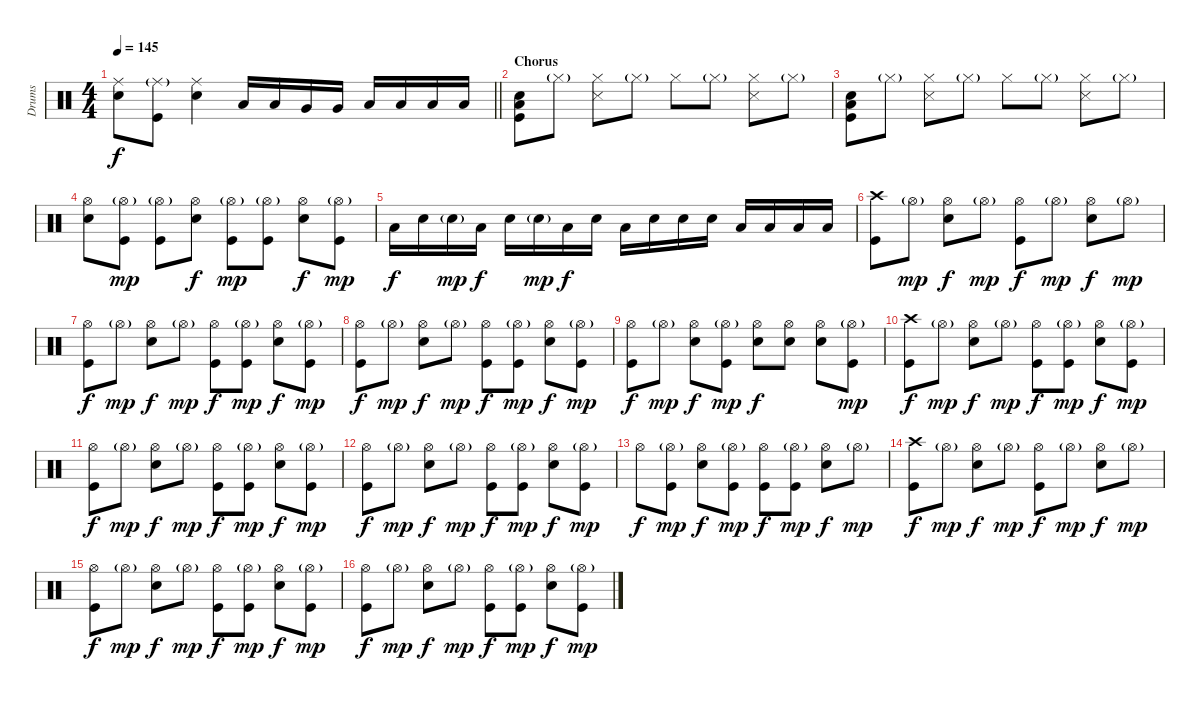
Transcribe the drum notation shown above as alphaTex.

\track ("Drums" "Drums") {instrument percussion}
\staff {score}
\articulation defaults
\ts (4 4)
\tempo 145
\clef neutral
\barLineRight lightlight
\ks c
("Ride (middle)" "Snare (hit) 2").8{dy f} ("Ride (middle)"{g} "Kick (hit)").8 ("Ride (middle)" "Snare (hit) 2").4 "Low Tom (hit)".16 "Low Tom (hit)".16 "Very Low Tom (hit)".16 "Very Low Tom (hit)".16 "Low Floor Tom (hit)".16 "Low Floor Tom (hit)".16 "Low Floor Tom (hit)".16 "Low Floor Tom (hit)".16 |
\section ("" "Chorus")
("Snare (hit) 2" "Low Floor Tom (hit)" "Kick (hit)").8 "Hi-Hat (closed)"{g}.8 ("Hi-Hat (closed)" "Snare (side stick) 3").8 "Hi-Hat (closed)"{g}.8 "Hi-Hat (closed)".8 "Hi-Hat (closed)"{g}.8 ("Hi-Hat (closed)" "Snare (side stick) 3").8 "Hi-Hat (closed)"{g}.8 |
("Snare (hit) 2" "Low Floor Tom (hit)" "Kick (hit)").8 "Hi-Hat (closed)"{g}.8 ("Hi-Hat (closed)" "Snare (side stick) 3").8 "Hi-Hat (closed)"{g}.8 "Hi-Hat (closed)".8 "Hi-Hat (closed)"{g}.8 ("Hi-Hat (closed)" "Snare (side stick) 3").8 "Hi-Hat (closed)"{g}.8 |
("Hi-Hat (open)" "Snare (hit) 2").8 ("Hi-Hat (open)"{g} "Kick (hit)").8{dy mp} ("Hi-Hat (open)"{g} "Kick (hit)").8 ("Hi-Hat (open)" "Snare (hit) 2").8{dy f} ("Hi-Hat (open)"{g} "Kick (hit)").8{dy mp} ("Hi-Hat (open)"{g} "Kick (hit)").8 ("Hi-Hat (open)" "Snare (hit) 2").8{dy f} ("Hi-Hat (open)"{g} "Kick (hit)").8{dy mp} |
"Low Tom (hit)".16{dy f} "Snare (hit) 2".16 "Snare (hit) 2"{g}.16{dy mp} "Low Tom (hit)".16{dy f} "Snare (hit) 2".16 "Snare (hit) 2"{g}.16{dy mp} "Low Tom (hit)".16{dy f} "Snare (hit) 2".16 "Low Tom (hit)".16 "Snare (hit) 2".16 "Snare (hit) 2".16 "Snare (hit) 2".16 "Low Tom (hit)".16 "Low Tom (hit)".16 "Low Floor Tom (hit)".16 "Low Floor Tom (hit)".16 |
("Crash high (hit)" "Kick (hit)").8 "Hi-Hat (open)"{g}.8{dy mp} ("Hi-Hat (open)" "Snare (hit) 2").8{dy f} "Hi-Hat (open)"{g}.8{dy mp} ("Hi-Hat (open)" "Kick (hit)").8{dy f} "Hi-Hat (open)"{g}.8{dy mp} ("Hi-Hat (open)" "Snare (hit) 2").8{dy f} "Hi-Hat (open)"{g}.8{dy mp} |
("Hi-Hat (open)" "Kick (hit)").8{dy f} "Hi-Hat (open)"{g}.8{dy mp} ("Hi-Hat (open)" "Snare (hit) 2").8{dy f} "Hi-Hat (open)"{g}.8{dy mp} ("Hi-Hat (open)" "Kick (hit)").8{dy f} ("Hi-Hat (open)"{g} "Kick (hit)").8{dy mp} ("Hi-Hat (open)" "Snare (hit) 2").8{dy f} ("Hi-Hat (open)"{g} "Kick (hit)").8{dy mp} |
("Hi-Hat (open)" "Kick (hit)").8{dy f} "Hi-Hat (open)"{g}.8{dy mp} ("Hi-Hat (open)" "Snare (hit) 2").8{dy f} "Hi-Hat (open)"{g}.8{dy mp} ("Hi-Hat (open)" "Kick (hit)").8{dy f} ("Hi-Hat (open)"{g} "Kick (hit)").8{dy mp} ("Hi-Hat (open)" "Snare (hit) 2").8{dy f} ("Hi-Hat (open)"{g} "Kick (hit)").8{dy mp} |
("Hi-Hat (open)" "Kick (hit)").8{dy f} "Hi-Hat (open)"{g}.8{dy mp} ("Hi-Hat (open)" "Snare (hit) 2").8{dy f} ("Hi-Hat (open)"{g} "Kick (hit)").8{dy mp} ("Hi-Hat (open)" "Snare (hit) 2").8{dy f} ("Hi-Hat (open)" "Snare (hit) 2").8 ("Hi-Hat (open)" "Snare (hit) 2").8 ("Hi-Hat (open)"{g} "Kick (hit)").8{dy mp} |
("Crash high (hit)" "Kick (hit)").8{dy f} "Hi-Hat (open)"{g}.8{dy mp} ("Hi-Hat (open)" "Snare (hit) 2").8{dy f} "Hi-Hat (open)"{g}.8{dy mp} ("Hi-Hat (open)" "Kick (hit)").8{dy f} ("Hi-Hat (open)"{g} "Kick (hit)").8{dy mp} ("Hi-Hat (open)" "Snare (hit) 2").8{dy f} ("Hi-Hat (open)"{g} "Kick (hit)").8{dy mp} |
("Hi-Hat (open)" "Kick (hit)").8{dy f} "Hi-Hat (open)"{g}.8{dy mp} ("Hi-Hat (open)" "Snare (hit) 2").8{dy f} "Hi-Hat (open)"{g}.8{dy mp} ("Hi-Hat (open)" "Kick (hit)").8{dy f} ("Hi-Hat (open)"{g} "Kick (hit)").8{dy mp} ("Hi-Hat (open)" "Snare (hit) 2").8{dy f} ("Hi-Hat (open)"{g} "Kick (hit)").8{dy mp} |
("Hi-Hat (open)" "Kick (hit)").8{dy f} "Hi-Hat (open)"{g}.8{dy mp} ("Hi-Hat (open)" "Snare (hit) 2").8{dy f} "Hi-Hat (open)"{g}.8{dy mp} ("Hi-Hat (open)" "Kick (hit)").8{dy f} ("Hi-Hat (open)"{g} "Kick (hit)").8{dy mp} ("Hi-Hat (open)" "Snare (hit) 2").8{dy f} ("Hi-Hat (open)"{g} "Kick (hit)").8{dy mp} |
"Hi-Hat (open)".8{dy f} ("Hi-Hat (open)"{g} "Kick (hit)").8{dy mp} ("Hi-Hat (open)" "Snare (hit) 2").8{dy f} ("Hi-Hat (open)"{g} "Kick (hit)").8{dy mp} ("Hi-Hat (open)" "Kick (hit)").8{dy f} ("Hi-Hat (open)"{g} "Kick (hit)").8{dy mp} ("Hi-Hat (open)" "Snare (hit) 2").8{dy f} "Hi-Hat (open)"{g}.8{dy mp} |
("Crash high (hit)" "Kick (hit)").8{dy f} "Hi-Hat (open)"{g}.8{dy mp} ("Hi-Hat (open)" "Snare (hit) 2").8{dy f} "Hi-Hat (open)"{g}.8{dy mp} ("Hi-Hat (open)" "Kick (hit)").8{dy f} "Hi-Hat (open)"{g}.8{dy mp} ("Hi-Hat (open)" "Snare (hit) 2").8{dy f} "Hi-Hat (open)"{g}.8{dy mp} |
("Hi-Hat (open)" "Kick (hit)").8{dy f} "Hi-Hat (open)"{g}.8{dy mp} ("Hi-Hat (open)" "Snare (hit) 2").8{dy f} "Hi-Hat (open)"{g}.8{dy mp} ("Hi-Hat (open)" "Kick (hit)").8{dy f} ("Hi-Hat (open)"{g} "Kick (hit)").8{dy mp} ("Hi-Hat (open)" "Snare (hit) 2").8{dy f} ("Hi-Hat (open)"{g} "Kick (hit)").8{dy mp} |
("Hi-Hat (open)" "Kick (hit)").8{dy f} "Hi-Hat (open)"{g}.8{dy mp} ("Hi-Hat (open)" "Snare (hit) 2").8{dy f} "Hi-Hat (open)"{g}.8{dy mp} ("Hi-Hat (open)" "Kick (hit)").8{dy f} ("Hi-Hat (open)"{g} "Kick (hit)").8{dy mp} ("Hi-Hat (open)" "Snare (hit) 2").8{dy f} ("Hi-Hat (open)"{g} "Kick (hit)").8{dy mp}
